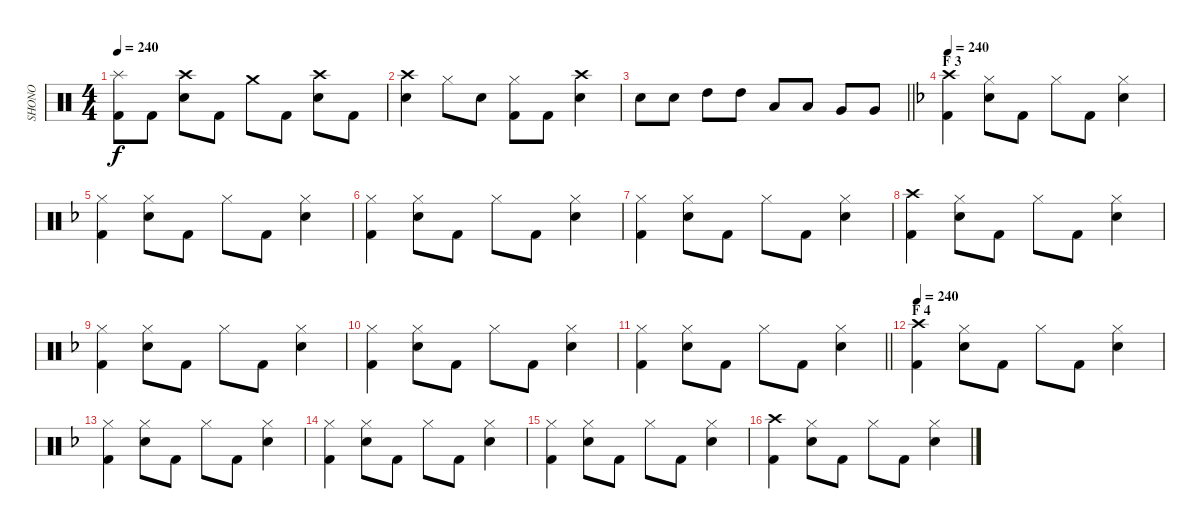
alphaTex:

\track ("SHONO" "SHONO") {instrument percussion}
\staff {score}
\articulation defaults
\ts (4 4)
\tempo 240
\clef neutral
\ks c
("Splash (hit)" "Kick (hit) 2").8{dy f} "Kick (hit) 2".8 ("Crash high (hit)" "Snare (hit) 2").8 "Kick (hit) 2".8 "Crash medium (hit)".8 "Kick (hit) 2".8 ("Crash high (hit)" "Snare (hit) 2").8 "Kick (hit) 2".8 |
("Crash high (hit)" "Snare (hit) 2").4 "Hi-Hat (closed)".8 "Snare (hit) 2".8 ("Hi-Hat (closed)" "Kick (hit) 2").8 "Kick (hit) 2".8 ("Crash high (hit)" "Snare (hit) 2").4 |
\barLineRight lightlight "Snare (hit) 2".8 "Snare (hit) 2".8 "High Tom (hit)".8 "High Tom (hit)".8 "Low Tom (hit)".8 "Low Tom (hit)".8 "Very Low Tom (hit)".8 "Very Low Tom (hit)".8
|
\section ("" "F 3")
\tempo 240
\ks f
("Crash high (hit)" "Kick (hit) 2").4 ("Hi-Hat (closed)" "Snare (hit) 2").8 "Kick (hit) 2".8 "Hi-Hat (closed)".8 "Kick (hit) 2".8 ("Hi-Hat (closed)" "Snare (hit) 2").4 |
("Hi-Hat (closed)" "Kick (hit) 2").4 ("Hi-Hat (closed)" "Snare (hit) 2").8 "Kick (hit) 2".8 "Hi-Hat (closed)".8 "Kick (hit) 2".8 ("Hi-Hat (closed)" "Snare (hit) 2").4 |
("Hi-Hat (closed)" "Kick (hit) 2").4 ("Hi-Hat (closed)" "Snare (hit) 2").8 "Kick (hit) 2".8 "Hi-Hat (closed)".8 "Kick (hit) 2".8 ("Hi-Hat (closed)" "Snare (hit) 2").4 |
("Hi-Hat (closed)" "Kick (hit) 2").4 ("Hi-Hat (closed)" "Snare (hit) 2").8 "Kick (hit) 2".8 "Hi-Hat (closed)".8 "Kick (hit) 2".8 ("Hi-Hat (closed)" "Snare (hit) 2").4 |
("Crash high (hit)" "Kick (hit) 2").4 ("Hi-Hat (closed)" "Snare (hit) 2").8 "Kick (hit) 2".8 "Hi-Hat (closed)".8 "Kick (hit) 2".8 ("Hi-Hat (closed)" "Snare (hit) 2").4 |
("Hi-Hat (closed)" "Kick (hit) 2").4 ("Hi-Hat (closed)" "Snare (hit) 2").8 "Kick (hit) 2".8 "Hi-Hat (closed)".8 "Kick (hit) 2".8 ("Hi-Hat (closed)" "Snare (hit) 2").4 |
("Hi-Hat (closed)" "Kick (hit) 2").4 ("Hi-Hat (closed)" "Snare (hit) 2").8 "Kick (hit) 2".8 "Hi-Hat (closed)".8 "Kick (hit) 2".8 ("Hi-Hat (closed)" "Snare (hit) 2").4 |
\barLineRight lightlight
("Hi-Hat (closed)" "Kick (hit) 2").4 ("Hi-Hat (closed)" "Snare (hit) 2").8 "Kick (hit) 2".8 "Hi-Hat (closed)".8 "Kick (hit) 2".8 ("Hi-Hat (closed)" "Snare (hit) 2").4 |
\section ("" "F 4")
\tempo 240
("Crash high (hit)" "Kick (hit) 2").4 ("Hi-Hat (closed)" "Snare (hit) 2").8 "Kick (hit) 2".8 "Hi-Hat (closed)".8 "Kick (hit) 2".8 ("Hi-Hat (closed)" "Snare (hit) 2").4 |
("Hi-Hat (closed)" "Kick (hit) 2").4 ("Hi-Hat (closed)" "Snare (hit) 2").8 "Kick (hit) 2".8 "Hi-Hat (closed)".8 "Kick (hit) 2".8 ("Hi-Hat (closed)" "Snare (hit) 2").4 |
("Hi-Hat (closed)" "Kick (hit) 2").4 ("Hi-Hat (closed)" "Snare (hit) 2").8 "Kick (hit) 2".8 "Hi-Hat (closed)".8 "Kick (hit) 2".8 ("Hi-Hat (closed)" "Snare (hit) 2").4 |
("Hi-Hat (closed)" "Kick (hit) 2").4 ("Hi-Hat (closed)" "Snare (hit) 2").8 "Kick (hit) 2".8 "Hi-Hat (closed)".8 "Kick (hit) 2".8 ("Hi-Hat (closed)" "Snare (hit) 2").4 |
("Crash high (hit)" "Kick (hit) 2").4 ("Hi-Hat (closed)" "Snare (hit) 2").8 "Kick (hit) 2".8 "Hi-Hat (closed)".8 "Kick (hit) 2".8 ("Hi-Hat (closed)" "Snare (hit) 2").4
